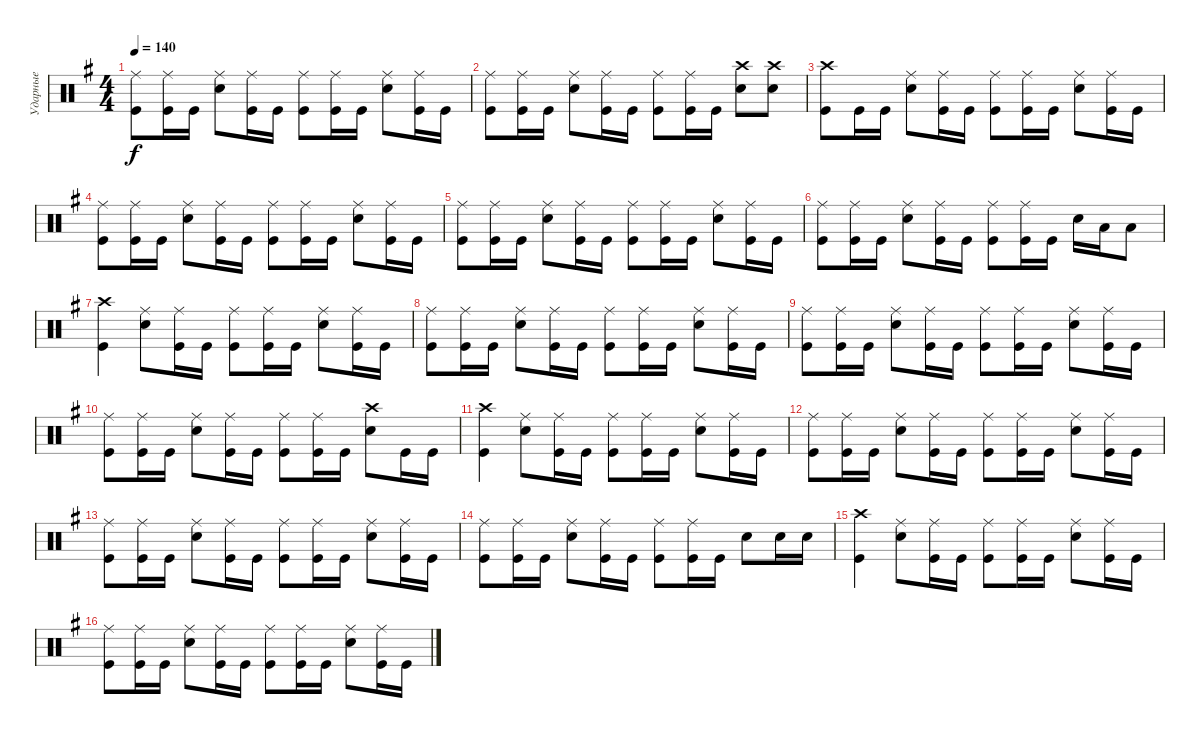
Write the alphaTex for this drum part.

\track ("Ударные" "Ударные") {instrument percussion}
\staff {score}
\articulation defaults
\ts (4 4)
\tempo 140
\clef neutral
\ks eminor
("Kick (hit)" "Ride (middle)").8{dy f} ("Kick (hit)" "Ride (middle)").16 "Kick (hit)".16 ("Snare (hit) 2" "Ride (middle)").8 ("Kick (hit)" "Ride (middle)").16 "Kick (hit)".16 ("Kick (hit)" "Ride (middle)").8 ("Kick (hit)" "Ride (middle)").16 "Kick (hit)".16 ("Snare (hit) 2" "Ride (middle)").8 ("Kick (hit)" "Ride (middle)").16 "Kick (hit)".16 |
("Kick (hit)" "Ride (middle)").8 ("Kick (hit)" "Ride (middle)").16 "Kick (hit)".16 ("Snare (hit) 2" "Ride (middle)").8 ("Kick (hit)" "Ride (middle)").16 "Kick (hit)".16 ("Kick (hit)" "Ride (middle)").8 ("Kick (hit)" "Ride (middle)").16 "Kick (hit)".16 ("Snare (hit) 2" "Crash high (hit)").8 ("Snare (hit) 2" "Crash high (hit)").8 |
("Kick (hit)" "Crash high (hit)").8 "Kick (hit)".16 "Kick (hit)".16 ("Snare (hit) 2" "Ride (middle)").8 ("Kick (hit)" "Ride (middle)").16 "Kick (hit)".16 ("Kick (hit)" "Ride (middle)").8 ("Kick (hit)" "Ride (middle)").16 "Kick (hit)".16 ("Snare (hit) 2" "Ride (middle)").8 ("Kick (hit)" "Ride (middle)").16 "Kick (hit)".16 |
("Kick (hit)" "Ride (middle)").8 ("Kick (hit)" "Ride (middle)").16 "Kick (hit)".16 ("Snare (hit) 2" "Ride (middle)").8 ("Kick (hit)" "Ride (middle)").16 "Kick (hit)".16 ("Kick (hit)" "Ride (middle)").8 ("Kick (hit)" "Ride (middle)").16 "Kick (hit)".16 ("Snare (hit) 2" "Ride (middle)").8 ("Kick (hit)" "Ride (middle)").16 "Kick (hit)".16 |
("Kick (hit)" "Ride (middle)").8 ("Kick (hit)" "Ride (middle)").16 "Kick (hit)".16 ("Snare (hit) 2" "Ride (middle)").8 ("Kick (hit)" "Ride (middle)").16 "Kick (hit)".16 ("Kick (hit)" "Ride (middle)").8 ("Kick (hit)" "Ride (middle)").16 "Kick (hit)".16 ("Snare (hit) 2" "Ride (middle)").8 ("Kick (hit)" "Ride (middle)").16 "Kick (hit)".16 |
("Kick (hit)" "Ride (middle)").8 ("Kick (hit)" "Ride (middle)").16 "Kick (hit)".16 ("Snare (hit) 2" "Ride (middle)").8 ("Kick (hit)" "Ride (middle)").16 "Kick (hit)".16 ("Kick (hit)" "Ride (middle)").8 ("Kick (hit)" "Ride (middle)").16 "Kick (hit)".16 "Snare (hit) 2".16 "Low Tom (hit)".16 "Low Tom (hit)".8 |
("Kick (hit)" "Crash high (hit)").4 ("Snare (hit) 2" "Ride (middle)").8 ("Kick (hit)" "Ride (middle)").16 "Kick (hit)".16 ("Kick (hit)" "Ride (middle)").8 ("Kick (hit)" "Ride (middle)").16 "Kick (hit)".16 ("Snare (hit) 2" "Ride (middle)").8 ("Kick (hit)" "Ride (middle)").16 "Kick (hit)".16 |
("Kick (hit)" "Ride (middle)").8 ("Kick (hit)" "Ride (middle)").16 "Kick (hit)".16 ("Snare (hit) 2" "Ride (middle)").8 ("Kick (hit)" "Ride (middle)").16 "Kick (hit)".16 ("Kick (hit)" "Ride (middle)").8 ("Kick (hit)" "Ride (middle)").16 "Kick (hit)".16 ("Snare (hit) 2" "Ride (middle)").8 ("Kick (hit)" "Ride (middle)").16 "Kick (hit)".16 |
("Kick (hit)" "Ride (middle)").8 ("Kick (hit)" "Ride (middle)").16 "Kick (hit)".16 ("Snare (hit) 2" "Ride (middle)").8 ("Kick (hit)" "Ride (middle)").16 "Kick (hit)".16 ("Kick (hit)" "Ride (middle)").8 ("Kick (hit)" "Ride (middle)").16 "Kick (hit)".16 ("Snare (hit) 2" "Ride (middle)").8 ("Kick (hit)" "Ride (middle)").16 "Kick (hit)".16 |
("Kick (hit)" "Ride (middle)").8 ("Kick (hit)" "Ride (middle)").16 "Kick (hit)".16 ("Snare (hit) 2" "Ride (middle)").8 ("Kick (hit)" "Ride (middle)").16 "Kick (hit)".16 ("Kick (hit)" "Ride (middle)").8 ("Kick (hit)" "Ride (middle)").16 "Kick (hit)".16 ("Snare (hit) 2" "Crash high (hit)").8 "Kick (hit)".16 "Kick (hit)".16 |
("Kick (hit)" "Crash high (hit)").4 ("Snare (hit) 2" "Ride (middle)").8 ("Kick (hit)" "Ride (middle)").16 "Kick (hit)".16 ("Kick (hit)" "Ride (middle)").8 ("Kick (hit)" "Ride (middle)").16 "Kick (hit)".16 ("Snare (hit) 2" "Ride (middle)").8 ("Kick (hit)" "Ride (middle)").16 "Kick (hit)".16 |
("Kick (hit)" "Ride (middle)").8 ("Kick (hit)" "Ride (middle)").16 "Kick (hit)".16 ("Snare (hit) 2" "Ride (middle)").8 ("Kick (hit)" "Ride (middle)").16 "Kick (hit)".16 ("Kick (hit)" "Ride (middle)").8 ("Kick (hit)" "Ride (middle)").16 "Kick (hit)".16 ("Snare (hit) 2" "Ride (middle)").8 ("Kick (hit)" "Ride (middle)").16 "Kick (hit)".16 |
("Kick (hit)" "Ride (middle)").8 ("Kick (hit)" "Ride (middle)").16 "Kick (hit)".16 ("Snare (hit) 2" "Ride (middle)").8 ("Kick (hit)" "Ride (middle)").16 "Kick (hit)".16 ("Kick (hit)" "Ride (middle)").8 ("Kick (hit)" "Ride (middle)").16 "Kick (hit)".16 ("Snare (hit) 2" "Ride (middle)").8 ("Kick (hit)" "Ride (middle)").16 "Kick (hit)".16 |
("Kick (hit)" "Ride (middle)").8 ("Kick (hit)" "Ride (middle)").16 "Kick (hit)".16 ("Snare (hit) 2" "Ride (middle)").8 ("Kick (hit)" "Ride (middle)").16 "Kick (hit)".16 ("Kick (hit)" "Ride (middle)").8 ("Kick (hit)" "Ride (middle)").16 "Kick (hit)".16 "Snare (hit) 2".8 "Snare (hit) 2".16 "Snare (hit) 2".16 |
("Kick (hit)" "Crash high (hit)").4 ("Snare (hit) 2" "Ride (middle)").8 ("Kick (hit)" "Ride (middle)").16 "Kick (hit)".16 ("Kick (hit)" "Ride (middle)").8 ("Kick (hit)" "Ride (middle)").16 "Kick (hit)".16 ("Snare (hit) 2" "Ride (middle)").8 ("Kick (hit)" "Ride (middle)").16 "Kick (hit)".16 |
("Kick (hit)" "Ride (middle)").8 ("Kick (hit)" "Ride (middle)").16 "Kick (hit)".16 ("Snare (hit) 2" "Ride (middle)").8 ("Kick (hit)" "Ride (middle)").16 "Kick (hit)".16 ("Kick (hit)" "Ride (middle)").8 ("Kick (hit)" "Ride (middle)").16 "Kick (hit)".16 ("Snare (hit) 2" "Ride (middle)").8 ("Kick (hit)" "Ride (middle)").16 "Kick (hit)".16
